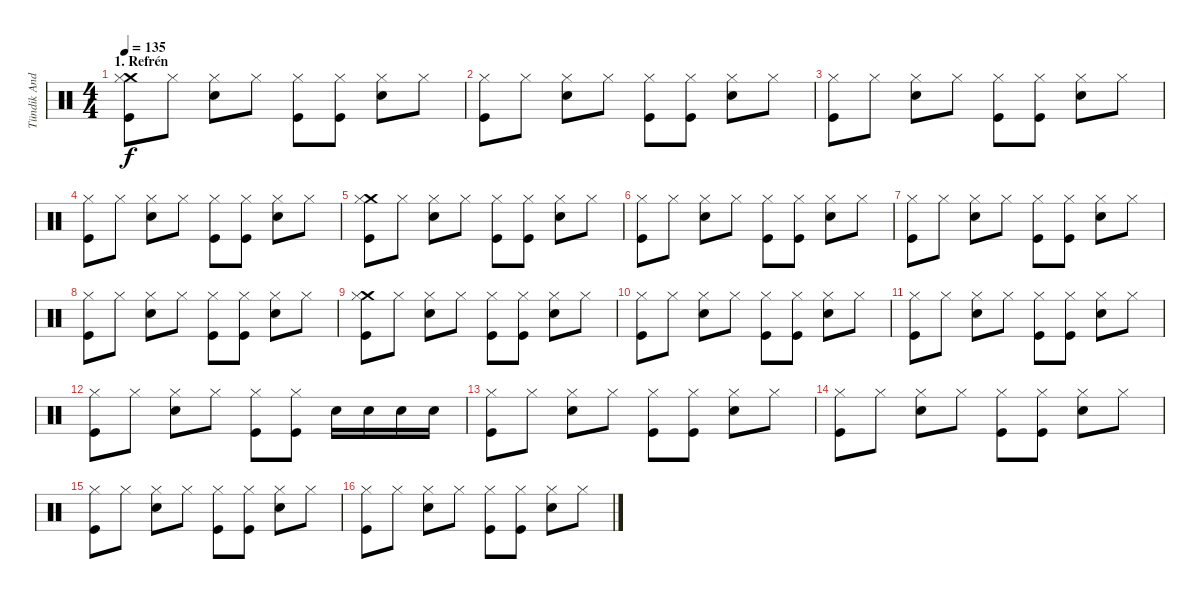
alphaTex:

\track ("Tündik András - Dob" "Tündik And") {instrument percussion}
\staff {score}
\articulation defaults
\ts (4 4)
\section ("" "1. Refrén")
\tempo 135
\clef neutral
\ks c
("Crash medium (hit)" "Hi-Hat (closed)" "Kick (hit)").8{dy f} "Hi-Hat (closed)".8 ("Snare (hit) 2" "Hi-Hat (closed)").8 "Hi-Hat (closed)".8 ("Hi-Hat (closed)" "Kick (hit)").8 ("Hi-Hat (closed)" "Kick (hit)").8 ("Snare (hit) 2" "Hi-Hat (closed)").8 "Hi-Hat (closed)".8 |
("Hi-Hat (closed)" "Kick (hit)").8 "Hi-Hat (closed)".8 ("Snare (hit) 2" "Hi-Hat (closed)").8 "Hi-Hat (closed)".8 ("Hi-Hat (closed)" "Kick (hit)").8 ("Hi-Hat (closed)" "Kick (hit)").8 ("Snare (hit) 2" "Hi-Hat (closed)").8 "Hi-Hat (closed)".8 |
("Hi-Hat (closed)" "Kick (hit)").8 "Hi-Hat (closed)".8 ("Snare (hit) 2" "Hi-Hat (closed)").8 "Hi-Hat (closed)".8 ("Hi-Hat (closed)" "Kick (hit)").8 ("Hi-Hat (closed)" "Kick (hit)").8 ("Snare (hit) 2" "Hi-Hat (closed)").8 "Hi-Hat (closed)".8 |
("Hi-Hat (closed)" "Kick (hit)").8 "Hi-Hat (closed)".8 ("Snare (hit) 2" "Hi-Hat (closed)").8 "Hi-Hat (closed)".8 ("Hi-Hat (closed)" "Kick (hit)").8 ("Hi-Hat (closed)" "Kick (hit)").8 ("Snare (hit) 2" "Hi-Hat (closed)").8 "Hi-Hat (closed)".8 |
("Crash medium (hit)" "Hi-Hat (closed)" "Kick (hit)").8 "Hi-Hat (closed)".8 ("Snare (hit) 2" "Hi-Hat (closed)").8 "Hi-Hat (closed)".8 ("Hi-Hat (closed)" "Kick (hit)").8 ("Hi-Hat (closed)" "Kick (hit)").8 ("Snare (hit) 2" "Hi-Hat (closed)").8 "Hi-Hat (closed)".8 |
("Hi-Hat (closed)" "Kick (hit)").8 "Hi-Hat (closed)".8 ("Snare (hit) 2" "Hi-Hat (closed)").8 "Hi-Hat (closed)".8 ("Hi-Hat (closed)" "Kick (hit)").8 ("Hi-Hat (closed)" "Kick (hit)").8 ("Snare (hit) 2" "Hi-Hat (closed)").8 "Hi-Hat (closed)".8 |
("Hi-Hat (closed)" "Kick (hit)").8 "Hi-Hat (closed)".8 ("Snare (hit) 2" "Hi-Hat (closed)").8 "Hi-Hat (closed)".8 ("Hi-Hat (closed)" "Kick (hit)").8 ("Hi-Hat (closed)" "Kick (hit)").8 ("Snare (hit) 2" "Hi-Hat (closed)").8 "Hi-Hat (closed)".8 |
("Hi-Hat (closed)" "Kick (hit)").8 "Hi-Hat (closed)".8 ("Snare (hit) 2" "Hi-Hat (closed)").8 "Hi-Hat (closed)".8 ("Hi-Hat (closed)" "Kick (hit)").8 ("Hi-Hat (closed)" "Kick (hit)").8 ("Snare (hit) 2" "Hi-Hat (closed)").8 "Hi-Hat (closed)".8 |
("Crash medium (hit)" "Hi-Hat (closed)" "Kick (hit)").8 "Hi-Hat (closed)".8 ("Snare (hit) 2" "Hi-Hat (closed)").8 "Hi-Hat (closed)".8 ("Hi-Hat (closed)" "Kick (hit)").8 ("Hi-Hat (closed)" "Kick (hit)").8 ("Snare (hit) 2" "Hi-Hat (closed)").8 "Hi-Hat (closed)".8 |
("Hi-Hat (closed)" "Kick (hit)").8 "Hi-Hat (closed)".8 ("Snare (hit) 2" "Hi-Hat (closed)").8 "Hi-Hat (closed)".8 ("Hi-Hat (closed)" "Kick (hit)").8 ("Hi-Hat (closed)" "Kick (hit)").8 ("Snare (hit) 2" "Hi-Hat (closed)").8 "Hi-Hat (closed)".8 |
("Hi-Hat (closed)" "Kick (hit)").8 "Hi-Hat (closed)".8 ("Snare (hit) 2" "Hi-Hat (closed)").8 "Hi-Hat (closed)".8 ("Hi-Hat (closed)" "Kick (hit)").8 ("Hi-Hat (closed)" "Kick (hit)").8 ("Snare (hit) 2" "Hi-Hat (closed)").8 "Hi-Hat (closed)".8 |
("Hi-Hat (closed)" "Kick (hit)").8 "Hi-Hat (closed)".8 ("Snare (hit) 2" "Hi-Hat (closed)").8 "Hi-Hat (closed)".8 ("Hi-Hat (closed)" "Kick (hit)").8 ("Hi-Hat (closed)" "Kick (hit)").8 "Snare (hit) 2".16 "Snare (hit) 2".16 "Snare (hit) 2".16 "Snare (hit) 2".16 |
("Hi-Hat (closed)" "Kick (hit)").8 "Hi-Hat (closed)".8 ("Snare (hit) 2" "Hi-Hat (closed)").8 "Hi-Hat (closed)".8 ("Hi-Hat (closed)" "Kick (hit)").8 ("Hi-Hat (closed)" "Kick (hit)").8 ("Snare (hit) 2" "Hi-Hat (closed)").8 "Hi-Hat (closed)".8 |
("Hi-Hat (closed)" "Kick (hit)").8 "Hi-Hat (closed)".8 ("Snare (hit) 2" "Hi-Hat (closed)").8 "Hi-Hat (closed)".8 ("Hi-Hat (closed)" "Kick (hit)").8 ("Hi-Hat (closed)" "Kick (hit)").8 ("Snare (hit) 2" "Hi-Hat (closed)").8 "Hi-Hat (closed)".8 |
("Hi-Hat (closed)" "Kick (hit)").8 "Hi-Hat (closed)".8 ("Snare (hit) 2" "Hi-Hat (closed)").8 "Hi-Hat (closed)".8 ("Hi-Hat (closed)" "Kick (hit)").8 ("Hi-Hat (closed)" "Kick (hit)").8 ("Snare (hit) 2" "Hi-Hat (closed)").8 "Hi-Hat (closed)".8 |
("Hi-Hat (closed)" "Kick (hit)").8 "Hi-Hat (closed)".8 ("Snare (hit) 2" "Hi-Hat (closed)").8 "Hi-Hat (closed)".8 ("Hi-Hat (closed)" "Kick (hit)").8 ("Hi-Hat (closed)" "Kick (hit)").8 ("Snare (hit) 2" "Hi-Hat (closed)").8 "Hi-Hat (closed)".8
